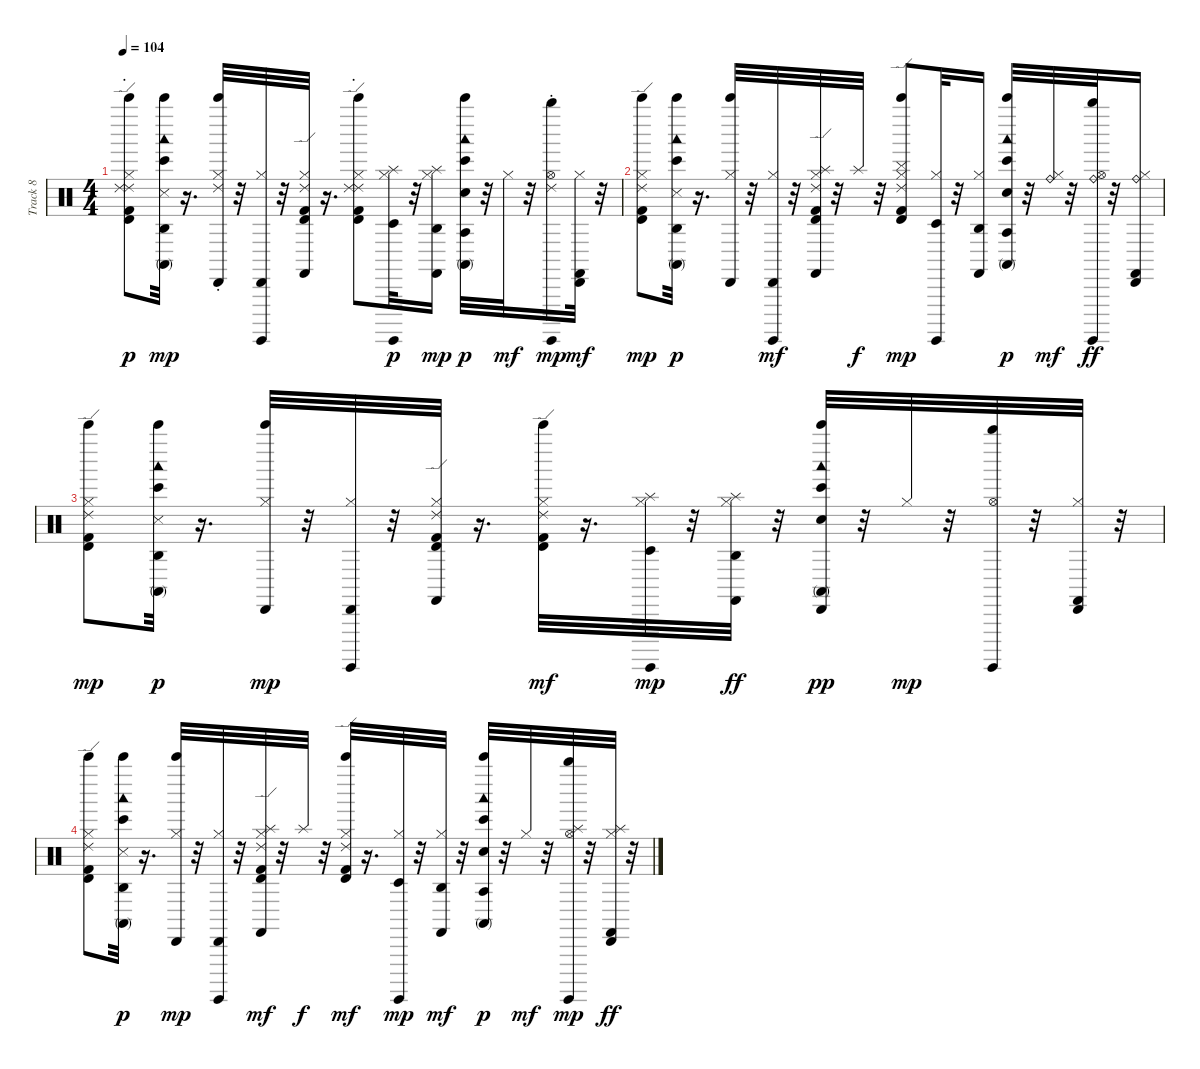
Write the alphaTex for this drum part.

\track ("Track 8" "Track 8") {instrument percussion}
\staff {score}
\articulation defaults
\ts (4 4)
\tempo 104
\clef neutral
\ks c
("Timbale high (hit)" "Ride (edge) 2" "Kick (hit) 2" "Bell Tree (hit)" "Hi-Hat (closed)" "Ride (choke) 2").8{dy p} ("Agogo high (hit)" "Bongo High (hit)" "Conga high (mute)" "Snare (side stick) 3" "Woodblock low (hit)" "Bell Tree (hit)").32{dy mp} r.16{d} ("Cabasa (hit)" "Bell Tree (hit)" "Hi-Hat (closed)" "Ride (choke) 2").32 r.32 ("Cabasa (hit)" "Surdo (hit)" "Hi-Hat (closed)").32 r.32 ("Timbale high (hit)" "Ride (edge) 2" "Kick (hit) 2" "Castanets (hit)" "Hi-Hat (closed)").32 r.16{d} ("Timbale high (hit)" "Ride (edge) 2" "Kick (hit) 2" "Bell Tree (hit)" "Hi-Hat (closed)" "Ride (choke) 2").8 ("Timbale low (hit)" "Surdo (hit)" "Hi-Hat (closed)" "Splash (hit)").32{dy p} r.32 ("Agogo high (hit)" "Castanets (hit)" "Hi-Hat (closed)" "Splash (hit)").16{dy mp} ("Agogo tow (hit)" "Bongo High (hit)" "Conga high (mute)" "Electric Snare (hit)" "Woodblock low (hit)" "Bell Tree (hit)").32{dy p} r.32 "Hi-Hat (closed)".32{dy mf} r.32 ("Whistle high (hit)" "Surdo (hit)" "Hi-Hat (open)" "Ride (choke) 2").16{dy mp} ("Cabasa (hit)" "Castanets (hit)" "Hi-Hat (closed)").32{dy mf} r.32 |
("Timbale high (hit)" "Ride (edge) 2" "Kick (hit) 2" "Bell Tree (hit)" "Hi-Hat (closed)").8{dy mp} ("Agogo high (hit)" "Bongo High (hit)" "Conga high (mute)" "Snare (side stick) 3" "Woodblock low (hit)" "Bell Tree (hit)").32{dy p} r.16{d} ("Cabasa (hit)" "Bell Tree (hit)" "Hi-Hat (closed)").32 r.32 ("Cabasa (hit)" "Surdo (hit)" "Hi-Hat (closed)").32{dy mf} r.32 ("Timbale high (hit)" "Ride (edge) 2" "Kick (hit) 2" "Castanets (hit)" "Splash (hit)" "Hi-Hat (closed)").32 r.32 "Splash (hit)".32{dy f} r.32 ("Timbale high (hit)" "Ride (edge) 2" "Kick (hit) 2" "Bell Tree (hit)" "Hi-Hat (closed)" "Cymbal (hit)").8{dy mp} ("Timbale low (hit)" "Surdo (hit)" "Hi-Hat (closed)").32 r.32 ("Agogo high (hit)" "Castanets (hit)" "Hi-Hat (closed)").16 ("Agogo tow (hit)" "Bongo High (hit)" "Conga high (mute)" "Electric Snare (hit)" "Woodblock low (hit)" "Bell Tree (hit)").32{dy p} r.32 ("Hi-Hat (closed)" "Ride (bell)").32{dy mf} r.32 ("Whistle high (hit)" "Surdo (hit)" "Hi-Hat (open)" "Ride (bell)").32{dy ff} r.32 ("Cabasa (hit)" "Castanets (hit)" "Hi-Hat (closed)" "Ride (bell)").16 |
("Timbale high (hit)" "Ride (edge) 2" "Kick (hit) 2" "Bell Tree (hit)" "Hi-Hat (closed)").8{dy mp} ("Agogo high (hit)" "Bongo High (hit)" "Conga high (mute)" "Snare (side stick) 3" "Woodblock low (hit)" "Bell Tree (hit)").32{dy p} r.16{d} ("Cabasa (hit)" "Bell Tree (hit)" "Hi-Hat (closed)").32{dy mp} r.32 ("Cabasa (hit)" "Surdo (hit)" "Hi-Hat (closed)").32 r.32 ("Timbale high (hit)" "Ride (edge) 2" "Kick (hit) 2" "Castanets (hit)" "Hi-Hat (closed)").32 r.16{d} ("Timbale high (hit)" "Ride (edge) 2" "Kick (hit) 2" "Bell Tree (hit)" "Hi-Hat (closed)").32{dy mf} r.16{d} ("Timbale low (hit)" "Surdo (hit)" "Hi-Hat (closed)" "Splash (hit)").32{dy mp} r.32 ("Agogo high (hit)" "Castanets (hit)" "Hi-Hat (closed)" "Splash (hit)").32{dy ff} r.32 ("Cabasa (hit)" "Bongo High (hit)" "Conga high (mute)" "Electric Snare (hit)" "Woodblock low (hit)" "Bell Tree (hit)").32{dy pp} r.32 "Hi-Hat (closed)".32{dy mp} r.32 ("Whistle high (hit)" "Surdo (hit)" "Hi-Hat (open)").32 r.32 ("Cabasa (hit)" "Castanets (hit)" "Hi-Hat (closed)").32 r.32 |
("Timbale high (hit)" "Ride (edge) 2" "Kick (hit) 2" "Bell Tree (hit)" "Hi-Hat (closed)").8 ("Agogo high (hit)" "Bongo High (hit)" "Conga high (mute)" "Snare (side stick) 3" "Woodblock low (hit)" "Bell Tree (hit)").32{dy p} r.16{d} ("Cabasa (hit)" "Bell Tree (hit)" "Hi-Hat (closed)").32{dy mp} r.32 ("Cabasa (hit)" "Surdo (hit)" "Hi-Hat (closed)").32 r.32 ("Timbale high (hit)" "Ride (edge) 2" "Kick (hit) 2" "Castanets (hit)" "Splash (hit)" "Hi-Hat (closed)").32{dy mf} r.32 "Splash (hit)".32{dy f} r.32 ("Timbale high (hit)" "Ride (edge) 2" "Kick (hit) 2" "Bell Tree (hit)" "Hi-Hat (closed)").32{dy mf} r.16{d} ("Timbale low (hit)" "Surdo (hit)" "Hi-Hat (closed)").32{dy mp} r.32 ("Agogo high (hit)" "Castanets (hit)" "Hi-Hat (closed)").32{dy mf} r.32 ("Agogo tow (hit)" "Bongo High (hit)" "Conga high (mute)" "Electric Snare (hit)" "Woodblock low (hit)" "Bell Tree (hit)").32{dy p} r.32 "Hi-Hat (closed)".32{dy mf} r.32 ("Whistle high (hit)" "Surdo (hit)" "Hi-Hat (open)" "Splash (hit)").32{dy mp} r.32 ("Cabasa (hit)" "Castanets (hit)" "Hi-Hat (closed)" "Splash (hit)").32{dy ff} r.32
